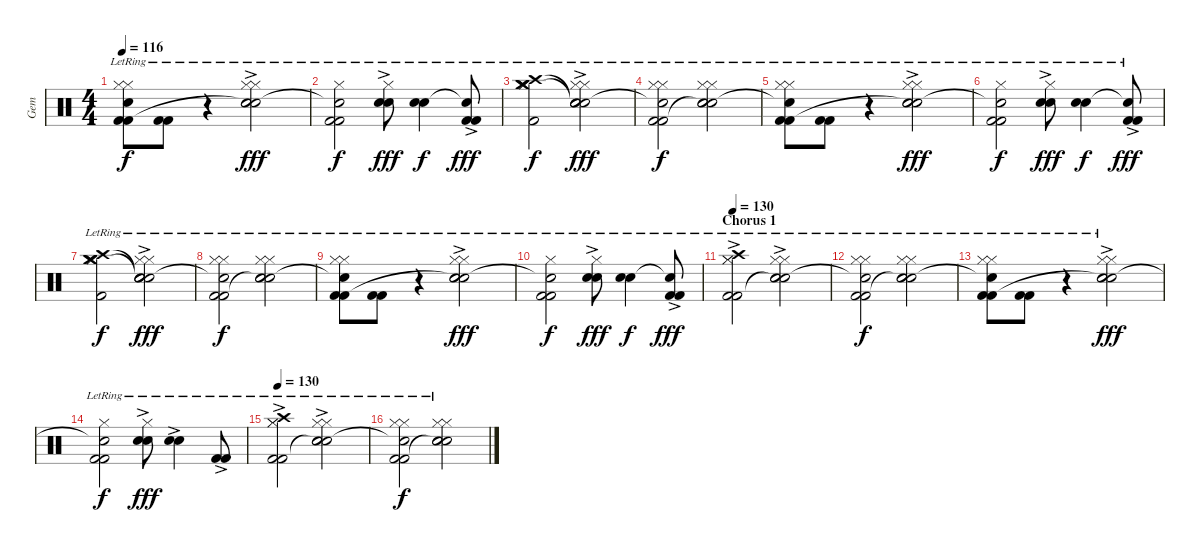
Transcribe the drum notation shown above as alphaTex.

\track ("Gem" "Gem") {instrument percussion}
\staff {score}
\articulation defaults
\ts (4 4)
\tempo 116
\clef neutral
\ks c
("Hi-Hat (closed)"{lr} "Hi-Hat (closed)"{lr} "Kick (hit) 2" "Snare (hit)"{t} "Kick (hit) 2"{lr}).8{dy f} ("Kick (hit) 2" "Kick (hit) 2"{lr}).8 r.4 ("Hi-Hat (closed)"{lr} "Hi-Hat (closed)"{lr} "Snare (hit) 2" "Snare (hit) 2"{ac lr} "Snare (hit)"{t}).2{dy fff} |
("Hi-Hat (closed)"{lr} "Kick (hit) 2" "Snare (hit)"{t} "Kick (hit) 2"{lr}).2{dy f} ("Hi-Hat (closed)"{lr} "Snare (hit) 2" "Snare (hit) 2"{ac lr}).8{dy fff} ("Snare (hit) 2" "Snare (hit) 2"{lr}).4{dy f} ("Kick (hit) 2" "Snare (hit)"{t} "Kick (hit) 2"{ac lr}).8{dy fff} |
("Hi-Hat (closed)"{lr} "Hi-Hat (closed)"{lr} "Crash medium (hit)"{lr} "Crash medium (hit)"{lr} "Kick (hit) 2"{lr} "Crash high (hit)"{lr}).2{dy f} ("Hi-Hat (closed)"{lr} "Hi-Hat (closed)"{lr} "Snare (hit)"{t} "Snare (hit) 2" "Snare (hit) 2"{ac lr} "Snare (hit)"{t}).2{dy fff} |
("Hi-Hat (closed)"{lr} "Hi-Hat (closed)"{lr} "Kick (hit) 2" "Snare (hit)"{t} "Kick (hit) 2"{lr}).2{dy f} ("Hi-Hat (closed)"{lr} "Hi-Hat (closed)"{lr} "Snare (hit) 2" "Snare (hit) 2"{lr} "Snare (hit)"{t}).2 |
("Hi-Hat (closed)"{lr} "Hi-Hat (closed)"{lr} "Kick (hit) 2" "Snare (hit)"{t} "Kick (hit) 2"{lr}).8 ("Kick (hit) 2" "Kick (hit) 2"{lr}).8 r.4 ("Hi-Hat (closed)"{lr} "Hi-Hat (closed)"{lr} "Snare (hit) 2" "Snare (hit) 2"{ac lr} "Snare (hit)"{t}).2{dy fff} |
("Hi-Hat (closed)"{lr} "Kick (hit) 2" "Snare (hit)"{t} "Kick (hit) 2"{lr}).2{dy f} ("Hi-Hat (closed)"{lr} "Snare (hit) 2" "Snare (hit) 2"{ac lr}).8{dy fff} ("Snare (hit) 2" "Snare (hit) 2"{lr}).4{dy f} ("Kick (hit) 2" "Snare (hit)"{t} "Kick (hit) 2"{ac lr}).8{dy fff} |
("Hi-Hat (closed)"{lr} "Hi-Hat (closed)"{lr} "Crash medium (hit)"{lr} "Crash medium (hit)"{lr} "Kick (hit) 2"{lr} "Crash high (hit)"{lr}).2{dy f} ("Hi-Hat (closed)"{lr} "Hi-Hat (closed)"{lr} "Snare (hit)"{t} "Snare (hit) 2" "Snare (hit) 2"{ac lr} "Snare (hit)"{t}).2{dy fff} |
("Hi-Hat (closed)"{lr} "Hi-Hat (closed)"{lr} "Kick (hit) 2" "Snare (hit)"{t} "Kick (hit) 2"{lr}).2{dy f} ("Hi-Hat (closed)"{lr} "Hi-Hat (closed)"{lr} "Snare (hit) 2" "Snare (hit) 2"{lr} "Snare (hit)"{t}).2 |
("Hi-Hat (closed)"{lr} "Hi-Hat (closed)"{lr} "Kick (hit) 2" "Snare (hit)"{t} "Kick (hit) 2"{lr}).8 ("Kick (hit) 2" "Kick (hit) 2"{lr}).8 r.4 ("Hi-Hat (closed)"{lr} "Hi-Hat (closed)"{lr} "Snare (hit) 2" "Snare (hit) 2"{ac lr} "Snare (hit)"{t}).2{dy fff} |
("Hi-Hat (closed)"{lr} "Kick (hit) 2" "Snare (hit)"{t} "Kick (hit) 2"{lr}).2{dy f} ("Hi-Hat (closed)"{lr} "Snare (hit) 2" "Snare (hit) 2"{ac lr}).8{dy fff} ("Snare (hit) 2" "Snare (hit) 2"{lr}).4{dy f} ("Kick (hit) 2" "Snare (hit)"{t} "Kick (hit) 2"{ac lr}).8{dy fff} |
\section ("" "Chorus 1")
\tempo 130
("Hi-Hat (closed)"{lr} "Hi-Hat (closed)"{lr} "Kick (hit) 2" "Crash high (hit)"{ac lr} "Kick (hit) 2"{lr}).2 ("Hi-Hat (closed)"{lr} "Hi-Hat (closed)"{lr} "Snare (hit) 2" "Snare (hit) 2"{ac lr} "Snare (hit)"{t}).2 |
("Hi-Hat (closed)"{lr} "Hi-Hat (closed)"{lr} "Kick (hit) 2" "Snare (hit)"{t} "Kick (hit) 2"{lr}).2{dy f} ("Hi-Hat (closed)"{lr} "Hi-Hat (closed)"{lr} "Snare (hit) 2" "Snare (hit) 2"{lr} "Snare (hit)"{t}).2 |
("Hi-Hat (closed)"{lr} "Hi-Hat (closed)"{lr} "Kick (hit) 2" "Snare (hit)"{t} "Kick (hit) 2"{lr}).8 ("Kick (hit) 2" "Kick (hit) 2"{lr}).8 r.4 ("Hi-Hat (closed)"{lr} "Hi-Hat (closed)"{lr} "Snare (hit) 2" "Snare (hit) 2"{ac lr} "Snare (hit)"{t}).2{dy fff} |
("Hi-Hat (closed)"{lr} "Kick (hit) 2" "Snare (hit)"{t} "Kick (hit) 2"{lr}).2{dy f} ("Hi-Hat (closed)"{lr} "Snare (hit) 2" "Snare (hit) 2"{ac lr}).8{dy fff} ("Snare (hit) 2" "Snare (hit) 2"{ac lr}).4 ("Kick (hit) 2" "Kick (hit) 2"{ac lr}).8 |
\tempo 130
("Hi-Hat (closed)"{lr} "Hi-Hat (closed)"{lr} "Kick (hit) 2" "Crash high (hit)"{ac lr} "Kick (hit) 2"{lr}).2 ("Hi-Hat (closed)"{lr} "Hi-Hat (closed)"{lr} "Snare (hit) 2" "Snare (hit) 2"{ac lr} "Snare (hit)"{t}).2 |
("Hi-Hat (closed)"{lr} "Hi-Hat (closed)"{lr} "Kick (hit) 2" "Snare (hit)"{t} "Kick (hit) 2"{lr}).2{dy f} ("Hi-Hat (closed)"{lr} "Hi-Hat (closed)"{lr} "Snare (hit) 2" "Snare (hit) 2"{lr} "Snare (hit)"{t}).2
